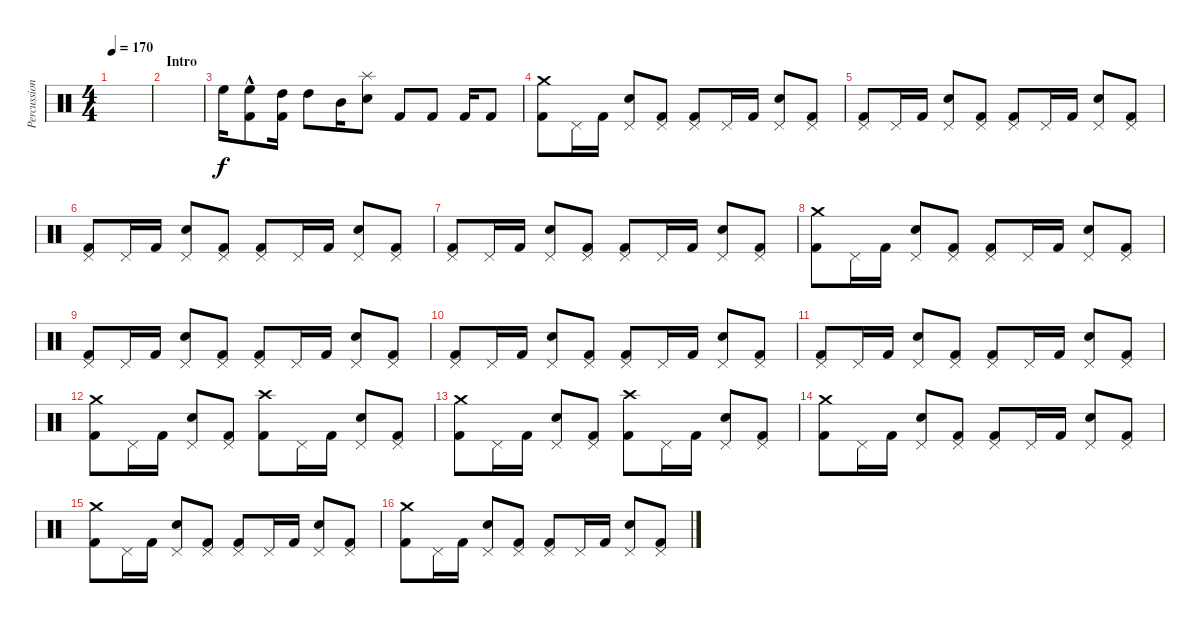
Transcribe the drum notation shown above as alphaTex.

\track ("Percussions" "Percussion") {instrument percussion}
\staff {score}
\articulation defaults
\ts (4 4)
\tempo 170
\clef neutral
\ks c
|
\section ("" "Intro")
|
"High Floor Tom (hit)".16 ("High Floor Tom (hit)"{hac} "Kick (hit) 2").8 ("High Tom (hit)" "Kick (hit) 2").16 "High Tom (hit)".8 "Mid Tom (hit)".16 ("Splash (hit)" "Snare (hit) 2").8 "Kick (hit) 2".8 "Kick (hit) 2".8 "Kick (hit) 2".16 "Kick (hit) 2".8 |
("Crash medium (hit)" "Kick (hit) 2").8 "Pedal Hi-Hat (hit)".16 "Kick (hit) 2".16 ("Pedal Hi-Hat (hit)" "Snare (hit) 2").8 ("Pedal Hi-Hat (hit)" "Kick (hit) 2").8 ("Pedal Hi-Hat (hit)" "Kick (hit) 2").8 "Pedal Hi-Hat (hit)".16 "Kick (hit) 2".16 ("Pedal Hi-Hat (hit)" "Snare (hit) 2").8 ("Pedal Hi-Hat (hit)" "Kick (hit) 2").8 |
("Pedal Hi-Hat (hit)" "Kick (hit) 2").8 "Pedal Hi-Hat (hit)".16 "Kick (hit) 2".16 ("Pedal Hi-Hat (hit)" "Snare (hit) 2").8 ("Pedal Hi-Hat (hit)" "Kick (hit) 2").8 ("Pedal Hi-Hat (hit)" "Kick (hit) 2").8 "Pedal Hi-Hat (hit)".16 "Kick (hit) 2".16 ("Pedal Hi-Hat (hit)" "Snare (hit) 2").8 ("Pedal Hi-Hat (hit)" "Kick (hit) 2").8 |
("Pedal Hi-Hat (hit)" "Kick (hit) 2").8 "Pedal Hi-Hat (hit)".16 "Kick (hit) 2".16 ("Pedal Hi-Hat (hit)" "Snare (hit) 2").8 ("Pedal Hi-Hat (hit)" "Kick (hit) 2").8 ("Pedal Hi-Hat (hit)" "Kick (hit) 2").8 "Pedal Hi-Hat (hit)".16 "Kick (hit) 2".16 ("Pedal Hi-Hat (hit)" "Snare (hit) 2").8 ("Pedal Hi-Hat (hit)" "Kick (hit) 2").8 |
("Pedal Hi-Hat (hit)" "Kick (hit) 2").8 "Pedal Hi-Hat (hit)".16 "Kick (hit) 2".16 ("Pedal Hi-Hat (hit)" "Snare (hit) 2").8 ("Pedal Hi-Hat (hit)" "Kick (hit) 2").8 ("Pedal Hi-Hat (hit)" "Kick (hit) 2").8 "Pedal Hi-Hat (hit)".16 "Kick (hit) 2".16 ("Pedal Hi-Hat (hit)" "Snare (hit) 2").8 ("Pedal Hi-Hat (hit)" "Kick (hit) 2").8 |
("Crash medium (hit)" "Kick (hit) 2").8 "Pedal Hi-Hat (hit)".16 "Kick (hit) 2".16 ("Pedal Hi-Hat (hit)" "Snare (hit) 2").8 ("Pedal Hi-Hat (hit)" "Kick (hit) 2").8 ("Pedal Hi-Hat (hit)" "Kick (hit) 2").8 "Pedal Hi-Hat (hit)".16 "Kick (hit) 2".16 ("Pedal Hi-Hat (hit)" "Snare (hit) 2").8 ("Pedal Hi-Hat (hit)" "Kick (hit) 2").8 |
("Pedal Hi-Hat (hit)" "Kick (hit) 2").8 "Pedal Hi-Hat (hit)".16 "Kick (hit) 2".16 ("Pedal Hi-Hat (hit)" "Snare (hit) 2").8 ("Pedal Hi-Hat (hit)" "Kick (hit) 2").8 ("Pedal Hi-Hat (hit)" "Kick (hit) 2").8 "Pedal Hi-Hat (hit)".16 "Kick (hit) 2".16 ("Pedal Hi-Hat (hit)" "Snare (hit) 2").8 ("Pedal Hi-Hat (hit)" "Kick (hit) 2").8 |
("Pedal Hi-Hat (hit)" "Kick (hit) 2").8 "Pedal Hi-Hat (hit)".16 "Kick (hit) 2".16 ("Pedal Hi-Hat (hit)" "Snare (hit) 2").8 ("Pedal Hi-Hat (hit)" "Kick (hit) 2").8 ("Pedal Hi-Hat (hit)" "Kick (hit) 2").8 "Pedal Hi-Hat (hit)".16 "Kick (hit) 2".16 ("Pedal Hi-Hat (hit)" "Snare (hit) 2").8 ("Pedal Hi-Hat (hit)" "Kick (hit) 2").8 |
("Pedal Hi-Hat (hit)" "Kick (hit) 2").8 "Pedal Hi-Hat (hit)".16 "Kick (hit) 2".16 ("Pedal Hi-Hat (hit)" "Snare (hit) 2").8 ("Pedal Hi-Hat (hit)" "Kick (hit) 2").8 ("Pedal Hi-Hat (hit)" "Kick (hit) 2").8 "Pedal Hi-Hat (hit)".16 "Kick (hit) 2".16 ("Pedal Hi-Hat (hit)" "Snare (hit) 2").8 ("Pedal Hi-Hat (hit)" "Kick (hit) 2").8 |
("Crash medium (hit)" "Kick (hit) 2").8 "Pedal Hi-Hat (hit)".16 "Kick (hit) 2".16 ("Pedal Hi-Hat (hit)" "Snare (hit) 2").8 ("Pedal Hi-Hat (hit)" "Kick (hit) 2").8 ("Crash high (hit)" "Kick (hit) 2").8 "Pedal Hi-Hat (hit)".16 "Kick (hit) 2".16 ("Pedal Hi-Hat (hit)" "Snare (hit) 2").8 ("Pedal Hi-Hat (hit)" "Kick (hit) 2").8 |
("Crash medium (hit)" "Kick (hit) 2").8 "Pedal Hi-Hat (hit)".16 "Kick (hit) 2".16 ("Pedal Hi-Hat (hit)" "Snare (hit) 2").8 ("Pedal Hi-Hat (hit)" "Kick (hit) 2").8 ("Crash high (hit)" "Kick (hit) 2").8 "Pedal Hi-Hat (hit)".16 "Kick (hit) 2".16 ("Pedal Hi-Hat (hit)" "Snare (hit) 2").8 ("Pedal Hi-Hat (hit)" "Kick (hit) 2").8 |
("Crash medium (hit)" "Kick (hit) 2").8 "Pedal Hi-Hat (hit)".16 "Kick (hit) 2".16 ("Pedal Hi-Hat (hit)" "Snare (hit) 2").8 ("Pedal Hi-Hat (hit)" "Kick (hit) 2").8 ("Pedal Hi-Hat (hit)" "Kick (hit) 2").8 "Pedal Hi-Hat (hit)".16 "Kick (hit) 2".16 ("Pedal Hi-Hat (hit)" "Snare (hit) 2").8 ("Pedal Hi-Hat (hit)" "Kick (hit) 2").8 |
("Crash medium (hit)" "Kick (hit) 2").8 "Pedal Hi-Hat (hit)".16 "Kick (hit) 2".16 ("Pedal Hi-Hat (hit)" "Snare (hit) 2").8 ("Pedal Hi-Hat (hit)" "Kick (hit) 2").8 ("Pedal Hi-Hat (hit)" "Kick (hit) 2").8 "Pedal Hi-Hat (hit)".16 "Kick (hit) 2".16 ("Pedal Hi-Hat (hit)" "Snare (hit) 2").8 ("Pedal Hi-Hat (hit)" "Kick (hit) 2").8 |
("Crash medium (hit)" "Kick (hit) 2").8 "Pedal Hi-Hat (hit)".16 "Kick (hit) 2".16 ("Pedal Hi-Hat (hit)" "Snare (hit) 2").8 ("Pedal Hi-Hat (hit)" "Kick (hit) 2").8 ("Pedal Hi-Hat (hit)" "Kick (hit) 2").8 "Pedal Hi-Hat (hit)".16 "Kick (hit) 2".16 ("Pedal Hi-Hat (hit)" "Snare (hit) 2").8 ("Pedal Hi-Hat (hit)" "Kick (hit) 2").8
